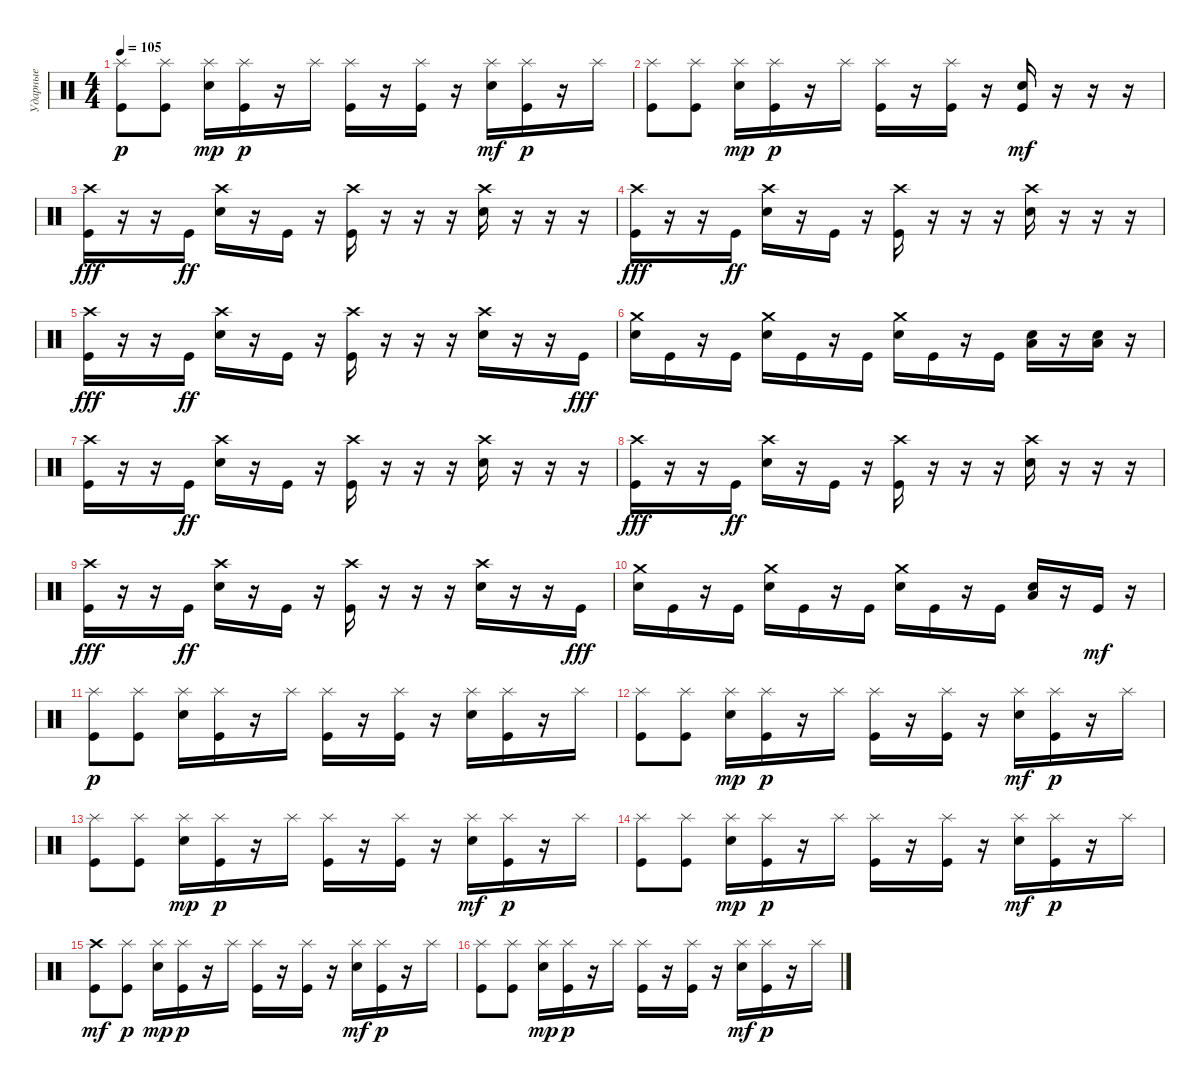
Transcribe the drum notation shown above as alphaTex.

\track ("Ударные" "Ударные") {instrument percussion}
\staff {score}
\articulation defaults
\ts (4 4)
\tempo 105
\clef neutral
\ks c
("Splash (hit)" "Kick (hit)").8{dy p} ("Splash (hit)" "Kick (hit)").8 ("Splash (hit)" "Electric Snare (hit)").16{dy mp} ("Splash (hit)" "Kick (hit)").16{dy p} r.16 "Splash (hit)".16 ("Splash (hit)" "Kick (hit)").16 r.16 ("Splash (hit)" "Kick (hit)").16 r.16 ("Splash (hit)" "Electric Snare (hit)").16{dy mf} ("Splash (hit)" "Kick (hit)").16{dy p} r.16 "Splash (hit)".16 |
("Splash (hit)" "Kick (hit)").8 ("Splash (hit)" "Kick (hit)").8 ("Splash (hit)" "Electric Snare (hit)").16{dy mp} ("Splash (hit)" "Kick (hit)").16{dy p} r.16 "Splash (hit)".16 ("Splash (hit)" "Kick (hit)").16 r.16 ("Splash (hit)" "Kick (hit)").16 r.16 ("Electric Snare (hit)" "Kick (hit)").16{dy mf} r.16 r.16 r.16 |
("Crash high (hit)" "Kick (hit)").16{dy fff} r.16 r.16 "Kick (hit)".16{dy ff} ("Crash high (hit)" "Electric Snare (hit)").16 r.16 "Kick (hit)".16 r.16 ("Crash high (hit)" "Kick (hit)").16 r.16 r.16 r.16 ("Crash high (hit)" "Electric Snare (hit)").16 r.16 r.16 r.16 |
("Crash high (hit)" "Kick (hit)").16{dy fff} r.16 r.16 "Kick (hit)".16{dy ff} ("Crash high (hit)" "Electric Snare (hit)").16 r.16 "Kick (hit)".16 r.16 ("Crash high (hit)" "Kick (hit)").16 r.16 r.16 r.16 ("Crash high (hit)" "Electric Snare (hit)").16 r.16 r.16 r.16 |
("Crash high (hit)" "Kick (hit)").16{dy fff} r.16 r.16 "Kick (hit)".16{dy ff} ("Crash high (hit)" "Electric Snare (hit)").16 r.16 "Kick (hit)".16 r.16 ("Crash high (hit)" "Kick (hit)").16 r.16 r.16 r.16 ("Crash high (hit)" "Electric Snare (hit)").16 r.16 r.16 "Kick (hit)".16{dy fff} |
("Crash medium (hit)" "Electric Snare (hit)").16 "Kick (hit)".16 r.16 "Kick (hit)".16 ("Crash medium (hit)" "Electric Snare (hit)").16 "Kick (hit)".16 r.16 "Kick (hit)".16 ("Crash medium (hit)" "Electric Snare (hit)").16 "Kick (hit)".16 r.16 "Kick (hit)".16 ("Electric Snare (hit)" "Low Floor Tom (hit)").16 r.16 ("Electric Snare (hit)" "Low Floor Tom (hit)").16 r.16 |
("Crash high (hit)" "Kick (hit)").16 r.16 r.16 "Kick (hit)".16{dy ff} ("Crash high (hit)" "Electric Snare (hit)").16 r.16 "Kick (hit)".16 r.16 ("Crash high (hit)" "Kick (hit)").16 r.16 r.16 r.16 ("Crash high (hit)" "Electric Snare (hit)").16 r.16 r.16 r.16 |
("Crash high (hit)" "Kick (hit)").16{dy fff} r.16 r.16 "Kick (hit)".16{dy ff} ("Crash high (hit)" "Electric Snare (hit)").16 r.16 "Kick (hit)".16 r.16 ("Crash high (hit)" "Kick (hit)").16 r.16 r.16 r.16 ("Crash high (hit)" "Electric Snare (hit)").16 r.16 r.16 r.16 |
("Crash high (hit)" "Kick (hit)").16{dy fff} r.16 r.16 "Kick (hit)".16{dy ff} ("Crash high (hit)" "Electric Snare (hit)").16 r.16 "Kick (hit)".16 r.16 ("Crash high (hit)" "Kick (hit)").16 r.16 r.16 r.16 ("Crash high (hit)" "Electric Snare (hit)").16 r.16 r.16 "Kick (hit)".16{dy fff} |
("Crash medium (hit)" "Electric Snare (hit)").16 "Kick (hit)".16 r.16 "Kick (hit)".16 ("Crash medium (hit)" "Electric Snare (hit)").16 "Kick (hit)".16 r.16 "Kick (hit)".16 ("Crash medium (hit)" "Electric Snare (hit)").16 "Kick (hit)".16 r.16 "Kick (hit)".16 ("Electric Snare (hit)" "Low Floor Tom (hit)").16 r.16 "Kick (hit)".16{dy mf} r.16 |
("Splash (hit)" "Kick (hit)").8{dy p} ("Splash (hit)" "Kick (hit)").8 ("Splash (hit)" "Electric Snare (hit)").16 ("Splash (hit)" "Kick (hit)").16 r.16 "Splash (hit)".16 ("Splash (hit)" "Kick (hit)").16 r.16 ("Splash (hit)" "Kick (hit)").16 r.16 ("Splash (hit)" "Electric Snare (hit)").16 ("Splash (hit)" "Kick (hit)").16 r.16 "Splash (hit)".16 |
("Splash (hit)" "Kick (hit)").8 ("Splash (hit)" "Kick (hit)").8 ("Splash (hit)" "Electric Snare (hit)").16{dy mp} ("Splash (hit)" "Kick (hit)").16{dy p} r.16 "Splash (hit)".16 ("Splash (hit)" "Kick (hit)").16 r.16 ("Splash (hit)" "Kick (hit)").16 r.16 ("Splash (hit)" "Electric Snare (hit)").16{dy mf} ("Splash (hit)" "Kick (hit)").16{dy p} r.16 "Splash (hit)".16 |
("Splash (hit)" "Kick (hit)").8 ("Splash (hit)" "Kick (hit)").8 ("Splash (hit)" "Electric Snare (hit)").16{dy mp} ("Splash (hit)" "Kick (hit)").16{dy p} r.16 "Splash (hit)".16 ("Splash (hit)" "Kick (hit)").16 r.16 ("Splash (hit)" "Kick (hit)").16 r.16 ("Splash (hit)" "Electric Snare (hit)").16{dy mf} ("Splash (hit)" "Kick (hit)").16{dy p} r.16 "Splash (hit)".16 |
("Splash (hit)" "Kick (hit)").8 ("Splash (hit)" "Kick (hit)").8 ("Splash (hit)" "Electric Snare (hit)").16{dy mp} ("Splash (hit)" "Kick (hit)").16{dy p} r.16 "Splash (hit)".16 ("Splash (hit)" "Kick (hit)").16 r.16 ("Splash (hit)" "Kick (hit)").16 r.16 ("Splash (hit)" "Electric Snare (hit)").16{dy mf} ("Splash (hit)" "Kick (hit)").16{dy p} r.16 "Splash (hit)".16 |
("Crash high (hit)" "Kick (hit)").8{dy mf} ("Splash (hit)" "Kick (hit)").8{dy p} ("Splash (hit)" "Electric Snare (hit)").16{dy mp} ("Splash (hit)" "Kick (hit)").16{dy p} r.16 "Splash (hit)".16 ("Splash (hit)" "Kick (hit)").16 r.16 ("Splash (hit)" "Kick (hit)").16 r.16 ("Splash (hit)" "Electric Snare (hit)").16{dy mf} ("Splash (hit)" "Kick (hit)").16{dy p} r.16 "Splash (hit)".16 |
("Splash (hit)" "Kick (hit)").8 ("Splash (hit)" "Kick (hit)").8 ("Splash (hit)" "Electric Snare (hit)").16{dy mp} ("Splash (hit)" "Kick (hit)").16{dy p} r.16 "Splash (hit)".16 ("Splash (hit)" "Kick (hit)").16 r.16 ("Splash (hit)" "Kick (hit)").16 r.16 ("Splash (hit)" "Electric Snare (hit)").16{dy mf} ("Splash (hit)" "Kick (hit)").16{dy p} r.16 "Splash (hit)".16
